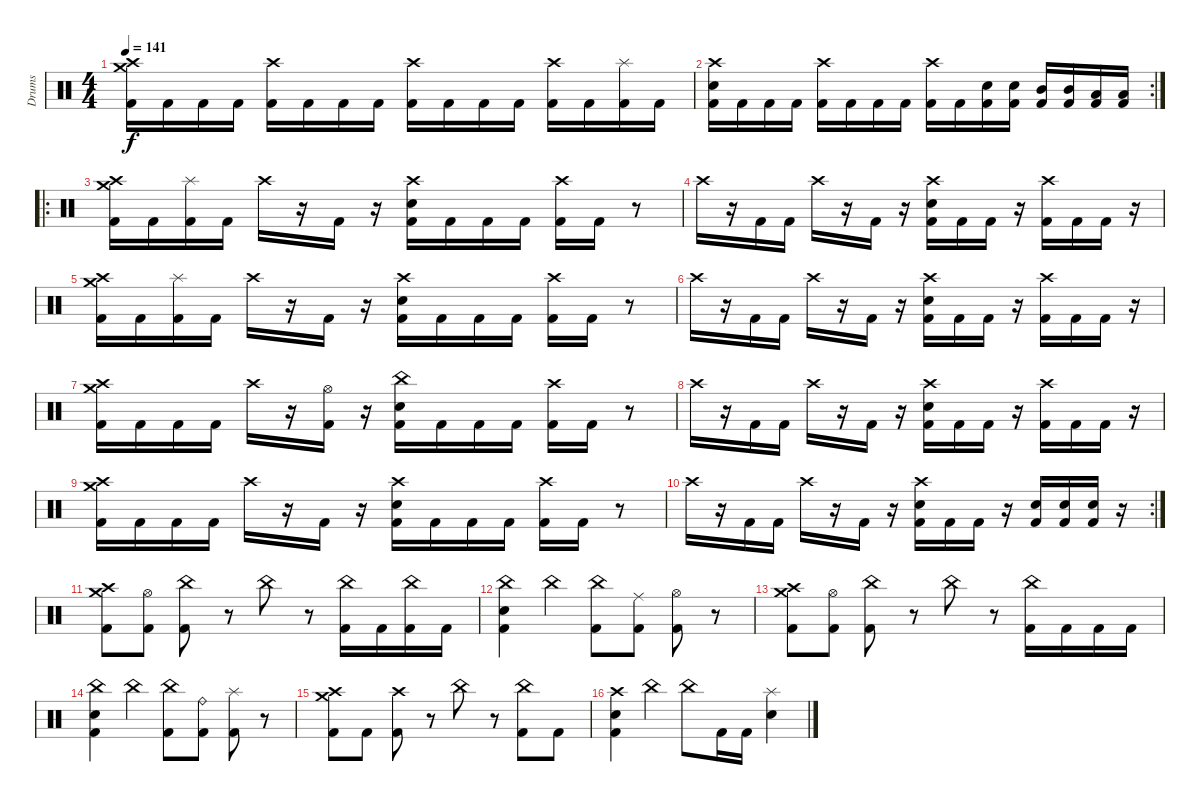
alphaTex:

\track ("Drums" "Drums") {solo instrument percussion}
\staff {score}
\articulation defaults
\ts (4 4)
\tempo 141
\clef neutral
\ks c
("Crash high (hit)" "Crash medium (hit)" "Kick (hit) 2").16{dy f} "Kick (hit) 2".16 "Kick (hit) 2".16 "Kick (hit) 2".16 ("Crash high (hit)" "Kick (hit) 2").16 "Kick (hit) 2".16 "Kick (hit) 2".16 "Kick (hit) 2".16 ("Crash high (hit)" "Kick (hit) 2").16 "Kick (hit) 2".16 "Kick (hit) 2".16 "Kick (hit) 2".16 ("Crash high (hit)" "Kick (hit) 2").16 "Kick (hit) 2".16 ("Splash (hit)" "Kick (hit) 2").16 "Kick (hit) 2".16 |
\rc 2
("Crash high (hit)" "Electric Snare (hit)" "Kick (hit) 2").16 "Kick (hit) 2".16 "Kick (hit) 2".16 "Kick (hit) 2".16 ("Crash high (hit)" "Kick (hit) 2").16 "Kick (hit) 2".16 "Kick (hit) 2".16 "Kick (hit) 2".16 ("Crash high (hit)" "Kick (hit) 2").16 "Kick (hit) 2".16 ("Electric Snare (hit)" "Kick (hit) 2").16 ("Electric Snare (hit)" "Kick (hit) 2").16 ("Mid Tom (hit)" "Kick (hit) 2").16 ("Mid Tom (hit)" "Kick (hit) 2").16 ("Low Tom (hit)" "Kick (hit) 2").16 ("Low Tom (hit)" "Kick (hit) 2").16 |
\ro
("Crash high (hit)" "Crash medium (hit)" "Kick (hit) 2").16 "Kick (hit) 2".16 ("Splash (hit)" "Kick (hit) 2").16 "Kick (hit) 2".16 "Crash high (hit)".16 r.16 "Kick (hit) 2".16 r.16 ("Crash high (hit)" "Electric Snare (hit)" "Kick (hit) 2").16 "Kick (hit) 2".16 "Kick (hit) 2".16 "Kick (hit) 2".16 ("Crash high (hit)" "Kick (hit) 2").16 "Kick (hit) 2".16 r.8 |
"Crash high (hit)".16 r.16 "Kick (hit) 2".16 "Kick (hit) 2".16 "Crash high (hit)".16 r.16 "Kick (hit) 2".16 r.16 ("Crash high (hit)" "Electric Snare (hit)" "Kick (hit) 2").16 "Kick (hit) 2".16 "Kick (hit) 2".16 r.16 ("Crash high (hit)" "Kick (hit) 2").16 "Kick (hit) 2".16 "Kick (hit) 2".16 r.16 |
("Crash high (hit)" "Crash medium (hit)" "Kick (hit) 2").16 "Kick (hit) 2".16 ("Splash (hit)" "Kick (hit) 2").16 "Kick (hit) 2".16 "Crash high (hit)".16 r.16 "Kick (hit) 2".16 r.16 ("Crash high (hit)" "Electric Snare (hit)" "Kick (hit) 2").16 "Kick (hit) 2".16 "Kick (hit) 2".16 "Kick (hit) 2".16 ("Crash high (hit)" "Kick (hit) 2").16 "Kick (hit) 2".16 r.8 |
"Crash high (hit)".16 r.16 "Kick (hit) 2".16 "Kick (hit) 2".16 "Crash high (hit)".16 r.16 "Kick (hit) 2".16 r.16 ("Crash high (hit)" "Electric Snare (hit)" "Kick (hit) 2").16 "Kick (hit) 2".16 "Kick (hit) 2".16 r.16 ("Crash high (hit)" "Kick (hit) 2").16 "Kick (hit) 2".16 "Kick (hit) 2".16 r.16 |
("Crash high (hit)" "Crash medium (hit)" "Kick (hit) 2").16 "Kick (hit) 2".16 "Kick (hit) 2".16 "Kick (hit) 2".16 "Crash high (hit)".16 r.16 ("Hi-Hat (open)" "Kick (hit) 2").16 r.16 ("China (hit)" "Electric Snare (hit)" "Kick (hit) 2").16 "Kick (hit) 2".16 "Kick (hit) 2".16 "Kick (hit) 2".16 ("Crash high (hit)" "Kick (hit) 2").16 "Kick (hit) 2".16 r.8 |
"Crash high (hit)".16 r.16 "Kick (hit) 2".16 "Kick (hit) 2".16 "Crash high (hit)".16 r.16 "Kick (hit) 2".16 r.16 ("Crash high (hit)" "Electric Snare (hit)" "Kick (hit) 2").16 "Kick (hit) 2".16 "Kick (hit) 2".16 r.16 ("Crash high (hit)" "Kick (hit) 2").16 "Kick (hit) 2".16 "Kick (hit) 2".16 r.16 |
("Crash high (hit)" "Crash medium (hit)" "Kick (hit) 2").16 "Kick (hit) 2".16 "Kick (hit) 2".16 "Kick (hit) 2".16 "Crash high (hit)".16 r.16 "Kick (hit) 2".16 r.16 ("Crash high (hit)" "Electric Snare (hit)" "Kick (hit) 2").16 "Kick (hit) 2".16 "Kick (hit) 2".16 "Kick (hit) 2".16 ("Crash high (hit)" "Kick (hit) 2").16 "Kick (hit) 2".16 r.8 |
\rc 2 "Crash high (hit)".16
r.16 "Kick (hit) 2".16 "Kick (hit) 2".16 "Crash high (hit)".16 r.16 "Kick (hit) 2".16 r.16 ("Crash high (hit)" "Electric Snare (hit)" "Kick (hit) 2").16 "Kick (hit) 2".16 "Kick (hit) 2".16 r.16 ("Electric Snare (hit)" "Kick (hit) 2").16 ("Electric Snare (hit)" "Kick (hit) 2").16 ("Electric Snare (hit)" "Kick (hit) 2").16 r.16 |
("Crash high (hit)" "Crash medium (hit)" "Kick (hit) 2").8 ("Hi-Hat (open)" "Kick (hit) 2").8 ("China (hit)" "Kick (hit) 2").8 r.8 "China (hit)".8 r.8 ("China (hit)" "Kick (hit) 2").16 "Kick (hit) 2".16 ("China (hit)" "Kick (hit) 2").16 "Kick (hit) 2".16 |
("China (hit)" "Electric Snare (hit)" "Kick (hit) 2").4 "China (hit)".4 ("China (hit)" "Kick (hit) 2").8 ("Ride (middle)" "Kick (hit) 2").8 ("Hi-Hat (open)" "Kick (hit) 2").8 r.8 |
("Crash high (hit)" "Crash medium (hit)" "Kick (hit) 2").8 ("Hi-Hat (open)" "Kick (hit) 2").8 ("China (hit)" "Kick (hit) 2").8 r.8 "China (hit)".8 r.8 ("China (hit)" "Kick (hit) 2").16 "Kick (hit) 2".16 "Kick (hit) 2".16 "Kick (hit) 2".16 |
("China (hit)" "Electric Snare (hit)" "Kick (hit) 2").4 "China (hit)".4 ("China (hit)" "Kick (hit) 2").8 ("Ride (bell)" "Kick (hit) 2").8 ("Splash (hit)" "Kick (hit) 2").8 r.8 |
("Crash high (hit)" "Crash medium (hit)" "Kick (hit) 2").8 "Kick (hit) 2".8 ("Crash high (hit)" "Kick (hit) 2").8 r.8 "China (hit)".8 r.8 ("China (hit)" "Kick (hit) 2").8 "Kick (hit) 2".8 |
("Crash high (hit)" "Electric Snare (hit)" "Kick (hit) 2").4 "China (hit)".4 "China (hit)".8 "Kick (hit) 2".16 "Kick (hit) 2".16 ("Splash (hit)" "Electric Snare (hit)").4
